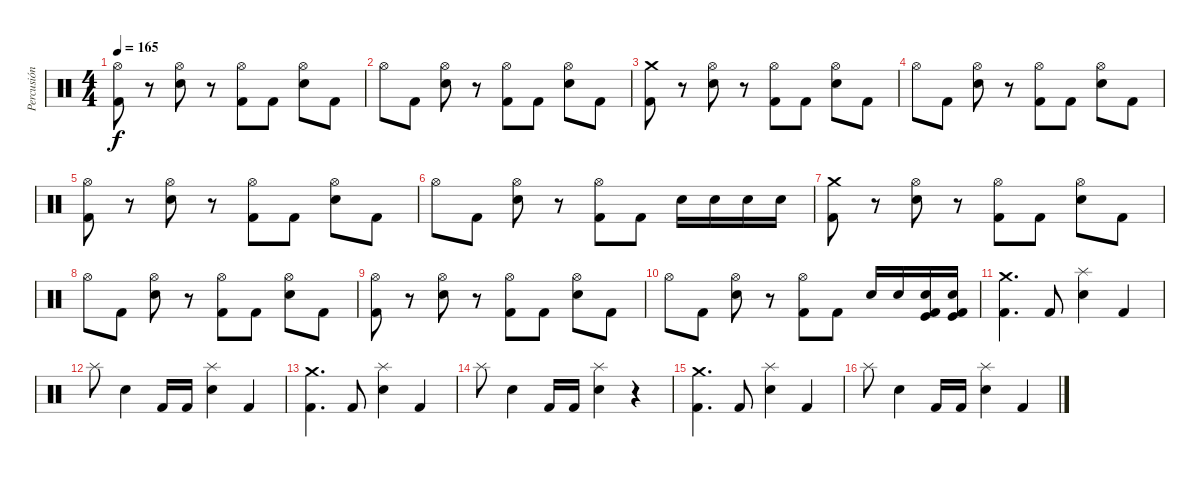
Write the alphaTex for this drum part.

\track ("Percusión" "Percusión") {instrument percussion}
\staff {score}
\articulation defaults
\ts (4 4)
\tempo 165
\clef neutral
\ks c
("Hi-Hat (open)" "Kick (hit) 2").8{dy f} r.8 ("Hi-Hat (open)" "Electric Snare (hit)").8 r.8 ("Hi-Hat (open)" "Kick (hit) 2").8 "Kick (hit) 2".8 ("Hi-Hat (open)" "Electric Snare (hit)").8 "Kick (hit) 2".8 |
"Hi-Hat (open)".8 "Kick (hit) 2".8 ("Hi-Hat (open)" "Electric Snare (hit)").8 r.8 ("Hi-Hat (open)" "Kick (hit) 2").8 "Kick (hit) 2".8 ("Hi-Hat (open)" "Electric Snare (hit)").8 "Kick (hit) 2".8 |
("Crash medium (hit)" "Kick (hit) 2").8 r.8 ("Hi-Hat (open)" "Electric Snare (hit)").8 r.8 ("Hi-Hat (open)" "Kick (hit) 2").8 "Kick (hit) 2".8 ("Hi-Hat (open)" "Electric Snare (hit)").8 "Kick (hit) 2".8 |
"Hi-Hat (open)".8 "Kick (hit) 2".8 ("Hi-Hat (open)" "Electric Snare (hit)").8 r.8 ("Hi-Hat (open)" "Kick (hit) 2").8 "Kick (hit) 2".8 ("Hi-Hat (open)" "Electric Snare (hit)").8 "Kick (hit) 2".8 |
("Hi-Hat (open)" "Kick (hit) 2").8 r.8 ("Hi-Hat (open)" "Electric Snare (hit)").8 r.8 ("Hi-Hat (open)" "Kick (hit) 2").8 "Kick (hit) 2".8 ("Hi-Hat (open)" "Electric Snare (hit)").8 "Kick (hit) 2".8 |
"Hi-Hat (open)".8 "Kick (hit) 2".8 ("Hi-Hat (open)" "Electric Snare (hit)").8 r.8 ("Hi-Hat (open)" "Kick (hit) 2").8 "Kick (hit) 2".8 "Electric Snare (hit)".16 "Electric Snare (hit)".16 "Electric Snare (hit)".16 "Electric Snare (hit)".16 |
("Crash medium (hit)" "Kick (hit) 2").8 r.8 ("Hi-Hat (open)" "Electric Snare (hit)").8 r.8 ("Hi-Hat (open)" "Kick (hit) 2").8 "Kick (hit) 2".8 ("Hi-Hat (open)" "Electric Snare (hit)").8 "Kick (hit) 2".8 |
"Hi-Hat (open)".8 "Kick (hit) 2".8 ("Hi-Hat (open)" "Electric Snare (hit)").8 r.8 ("Hi-Hat (open)" "Kick (hit) 2").8 "Kick (hit) 2".8 ("Hi-Hat (open)" "Electric Snare (hit)").8 "Kick (hit) 2".8 |
("Hi-Hat (open)" "Kick (hit) 2").8 r.8 ("Hi-Hat (open)" "Electric Snare (hit)").8 r.8 ("Hi-Hat (open)" "Kick (hit) 2").8 "Kick (hit) 2".8 ("Hi-Hat (open)" "Electric Snare (hit)").8 "Kick (hit) 2".8 |
"Hi-Hat (open)".8 "Kick (hit) 2".8 ("Hi-Hat (open)" "Electric Snare (hit)").8 r.8 ("Hi-Hat (open)" "Kick (hit) 2").8 "Kick (hit) 2".8 "Electric Snare (hit)".16 "Electric Snare (hit)".16 ("Electric Snare (hit)" "Kick (hit)" "Kick (hit) 2").16 ("Electric Snare (hit)" "Kick (hit)" "Kick (hit) 2").16 |
("Crash medium (hit)" "Kick (hit) 2").4{d} "Kick (hit) 2".8 ("Splash (hit)" "Electric Snare (hit)").4 "Kick (hit) 2".4 |
"Splash (hit)".8 "Electric Snare (hit)".4 "Kick (hit) 2".16 "Kick (hit) 2".16 ("Splash (hit)" "Electric Snare (hit)").4 "Kick (hit) 2".4 |
("Crash medium (hit)" "Kick (hit) 2").4{d} "Kick (hit) 2".8 ("Splash (hit)" "Electric Snare (hit)").4 "Kick (hit) 2".4 |
"Splash (hit)".8 "Electric Snare (hit)".4 "Kick (hit) 2".16 "Kick (hit) 2".16 ("Splash (hit)" "Electric Snare (hit)").4 r.4 |
("Crash medium (hit)" "Kick (hit) 2").4{d} "Kick (hit) 2".8 ("Splash (hit)" "Electric Snare (hit)").4 "Kick (hit) 2".4 |
"Splash (hit)".8 "Electric Snare (hit)".4 "Kick (hit) 2".16 "Kick (hit) 2".16 ("Splash (hit)" "Electric Snare (hit)").4 "Kick (hit) 2".4
